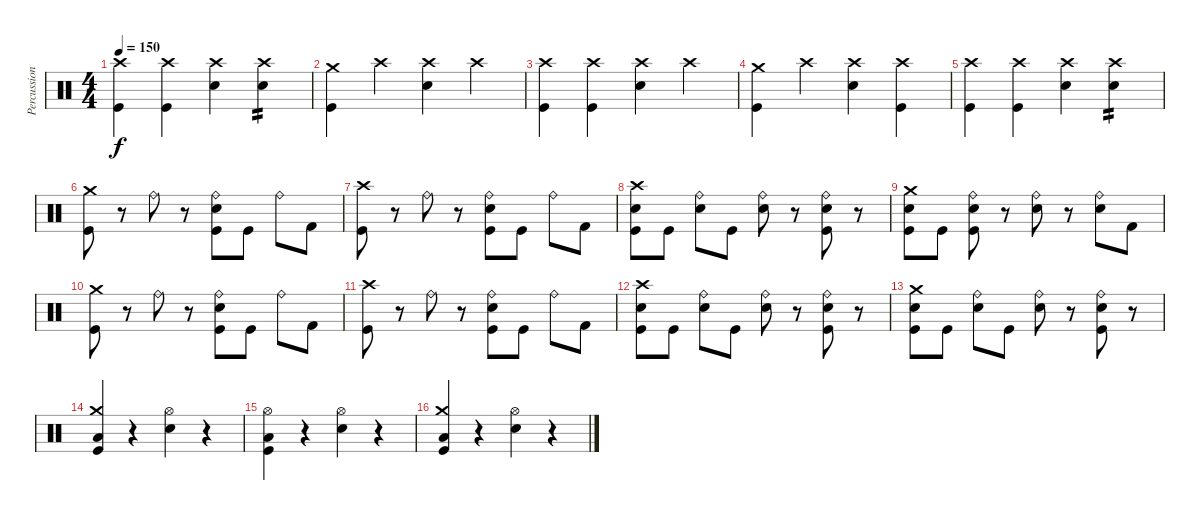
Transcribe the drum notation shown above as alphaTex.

\track ("Percussions" "Percussion") {instrument percussion}
\staff {score}
\articulation defaults
\ts (4 4)
\tempo 150
\clef neutral
\ks c
("Crash high (hit)" "Kick (hit)").4{dy f} ("Crash high (hit)" "Kick (hit)").4 ("Crash high (hit)" "Snare (hit) 2").4 ("Crash high (hit)" "Snare (hit) 2").4{tp 2} |
("Crash medium (hit)" "Kick (hit)").4 "Crash high (hit)".4 ("Crash high (hit)" "Snare (hit) 2").4 "Crash high (hit)".4 |
("Crash high (hit)" "Kick (hit)").4 ("Crash high (hit)" "Kick (hit)").4 ("Crash high (hit)" "Snare (hit) 2").4 "Crash high (hit)".4 |
("Crash medium (hit)" "Kick (hit)").4 "Crash high (hit)".4 ("Crash high (hit)" "Snare (hit) 2").4 ("Crash high (hit)" "Kick (hit)").4 |
("Crash high (hit)" "Kick (hit)").4 ("Crash high (hit)" "Kick (hit)").4 ("Crash high (hit)" "Snare (hit) 2").4 ("Crash high (hit)" "Snare (hit) 2").4{tp 2} |
("Crash medium (hit)" "Kick (hit)").8 r.8 "Ride (bell)".8 r.8 ("Ride (bell)" "Snare (hit) 2" "Kick (hit)").8 "Kick (hit)".8 "Ride (bell)".8 "Kick (hit) 2".8 |
("Crash high (hit)" "Kick (hit)").8 r.8 "Ride (bell)".8 r.8 ("Ride (bell)" "Snare (hit) 2" "Kick (hit)").8 "Kick (hit)".8 "Ride (bell)".8 "Kick (hit) 2".8 |
("Crash high (hit)" "Snare (hit) 2" "Kick (hit)").8 "Kick (hit)".8 ("Ride (bell)" "Snare (hit) 2").8 "Kick (hit)".8 ("Ride (bell)" "Snare (hit) 2").8 r.8 ("Ride (bell)" "Snare (hit) 2" "Kick (hit)").8 r.8 |
("Crash medium (hit)" "Snare (hit) 2" "Kick (hit)").8 "Kick (hit)".8 ("Ride (bell)" "Snare (hit) 2" "Kick (hit)").8 r.8 ("Ride (bell)" "Snare (hit) 2").8 r.8 ("Ride (bell)" "Snare (hit) 2").8 "Kick (hit) 2".8 |
("Crash medium (hit)" "Kick (hit)").8 r.8 "Ride (bell)".8 r.8 ("Ride (bell)" "Snare (hit) 2" "Kick (hit)").8 "Kick (hit)".8 "Ride (bell)".8 "Kick (hit) 2".8 |
("Crash high (hit)" "Kick (hit)").8 r.8 "Ride (bell)".8 r.8 ("Ride (bell)" "Snare (hit) 2" "Kick (hit)").8 "Kick (hit)".8 "Ride (bell)".8 "Kick (hit) 2".8 |
("Crash high (hit)" "Snare (hit) 2" "Kick (hit)").8 "Kick (hit)".8 ("Ride (bell)" "Snare (hit) 2").8 "Kick (hit)".8 ("Ride (bell)" "Snare (hit) 2").8 r.8 ("Ride (bell)" "Snare (hit) 2" "Kick (hit)").8 r.8 |
("Crash medium (hit)" "Snare (hit) 2" "Kick (hit)").8 "Kick (hit)".8 ("Ride (bell)" "Snare (hit) 2").8 "Kick (hit)".8 ("Ride (bell)" "Snare (hit) 2").8 r.8 ("Ride (bell)" "Snare (hit) 2" "Kick (hit)").8 r.8 |
("Crash medium (hit)" "Low Floor Tom (hit)" "Kick (hit)").4 r.4 ("Hi-Hat (open)" "Snare (hit) 2").4 r.4 |
("Hi-Hat (open)" "Low Floor Tom (hit)" "Kick (hit)").4 r.4 ("Hi-Hat (open)" "Snare (hit) 2").4 r.4 |
("Crash medium (hit)" "Low Floor Tom (hit)"{tr (45 16)} "Kick (hit)").4 r.4 ("Hi-Hat (open)" "Snare (hit) 2").4 r.4
